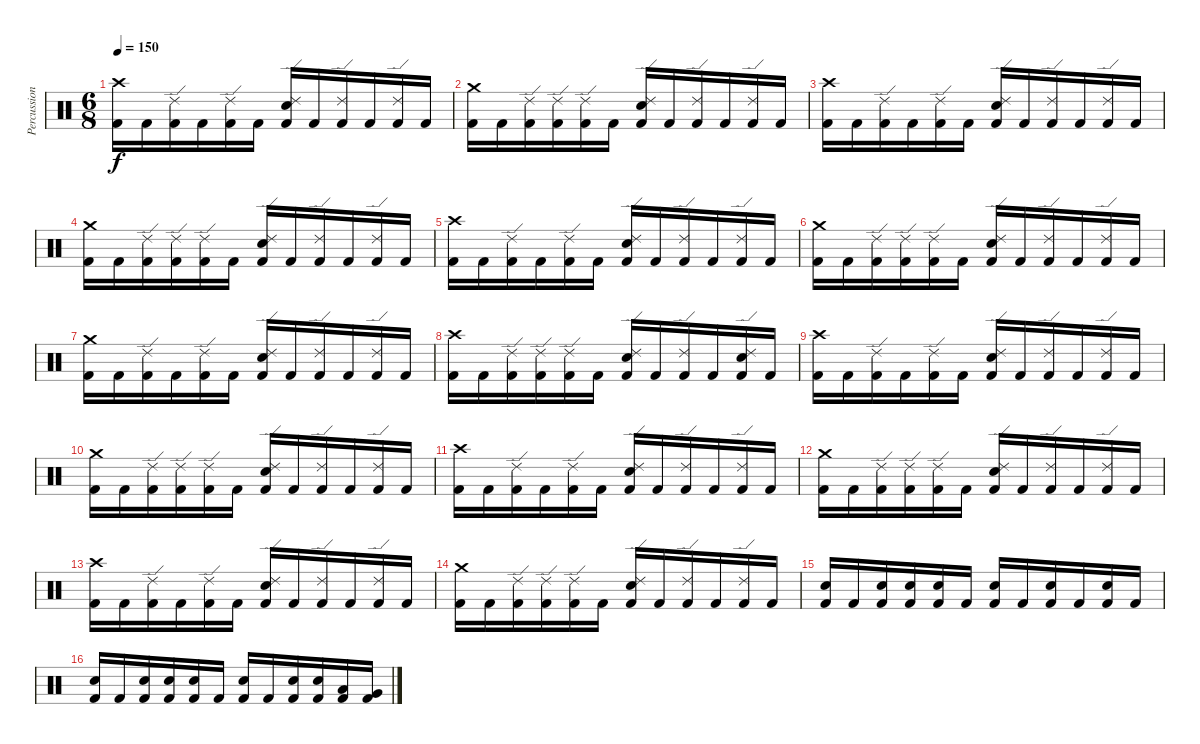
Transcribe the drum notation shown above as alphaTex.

\track ("Percussion" "Percussion") {instrument percussion}
\staff {score}
\articulation defaults
\ts (6 8)
\tempo 150
\clef neutral
\ks c
("Crash high (hit)" "Kick (hit) 2").16{dy f} "Kick (hit) 2".16 ("Ride (edge) 2" "Kick (hit) 2").16 "Kick (hit) 2".16 ("Ride (edge) 2" "Kick (hit) 2").16 "Kick (hit) 2".16 ("Ride (edge) 2" "Electric Snare (hit)" "Kick (hit) 2").16 "Kick (hit) 2".16 ("Ride (edge) 2" "Kick (hit) 2").16 "Kick (hit) 2".16 ("Ride (edge) 2" "Kick (hit) 2").16 "Kick (hit) 2".16 |
("Crash medium (hit)" "Kick (hit) 2").16 "Kick (hit) 2".16 ("Ride (edge) 2" "Kick (hit) 2").16 ("Ride (edge) 2" "Kick (hit) 2").16 ("Ride (edge) 2" "Kick (hit) 2").16 "Kick (hit) 2".16 ("Ride (edge) 2" "Electric Snare (hit)" "Kick (hit) 2").16 "Kick (hit) 2".16 ("Ride (edge) 2" "Kick (hit) 2").16 "Kick (hit) 2".16 ("Ride (edge) 2" "Kick (hit) 2").16 "Kick (hit) 2".16 |
("Crash high (hit)" "Kick (hit) 2").16 "Kick (hit) 2".16 ("Ride (edge) 2" "Kick (hit) 2").16 "Kick (hit) 2".16 ("Ride (edge) 2" "Kick (hit) 2").16 "Kick (hit) 2".16 ("Ride (edge) 2" "Electric Snare (hit)" "Kick (hit) 2").16 "Kick (hit) 2".16 ("Ride (edge) 2" "Kick (hit) 2").16 "Kick (hit) 2".16 ("Ride (edge) 2" "Kick (hit) 2").16 "Kick (hit) 2".16 |
("Crash medium (hit)" "Kick (hit) 2").16 "Kick (hit) 2".16 ("Ride (edge) 2" "Kick (hit) 2").16 ("Ride (edge) 2" "Kick (hit) 2").16 ("Ride (edge) 2" "Kick (hit) 2").16 "Kick (hit) 2".16 ("Ride (edge) 2" "Electric Snare (hit)" "Kick (hit) 2").16 "Kick (hit) 2".16 ("Ride (edge) 2" "Kick (hit) 2").16 "Kick (hit) 2".16 ("Ride (edge) 2" "Kick (hit) 2").16 "Kick (hit) 2".16 |
("Crash high (hit)" "Kick (hit) 2").16 "Kick (hit) 2".16 ("Ride (edge) 2" "Kick (hit) 2").16 "Kick (hit) 2".16 ("Ride (edge) 2" "Kick (hit) 2").16 "Kick (hit) 2".16 ("Ride (edge) 2" "Electric Snare (hit)" "Kick (hit) 2").16 "Kick (hit) 2".16 ("Ride (edge) 2" "Kick (hit) 2").16 "Kick (hit) 2".16 ("Ride (edge) 2" "Kick (hit) 2").16 "Kick (hit) 2".16 |
("Crash medium (hit)" "Kick (hit) 2").16 "Kick (hit) 2".16 ("Ride (edge) 2" "Kick (hit) 2").16 ("Ride (edge) 2" "Kick (hit) 2").16 ("Ride (edge) 2" "Kick (hit) 2").16 "Kick (hit) 2".16 ("Ride (edge) 2" "Electric Snare (hit)" "Kick (hit) 2").16 "Kick (hit) 2".16 ("Ride (edge) 2" "Kick (hit) 2").16 "Kick (hit) 2".16 ("Ride (edge) 2" "Kick (hit) 2").16 "Kick (hit) 2".16 |
("Crash medium (hit)" "Kick (hit) 2").16 "Kick (hit) 2".16 ("Ride (edge) 2" "Kick (hit) 2").16 "Kick (hit) 2".16 ("Ride (edge) 2" "Kick (hit) 2").16 "Kick (hit) 2".16 ("Ride (edge) 2" "Electric Snare (hit)" "Kick (hit) 2").16 "Kick (hit) 2".16 ("Ride (edge) 2" "Kick (hit) 2").16 "Kick (hit) 2".16 ("Ride (edge) 2" "Kick (hit) 2").16 "Kick (hit) 2".16 |
("Crash high (hit)" "Kick (hit) 2").16 "Kick (hit) 2".16 ("Ride (edge) 2" "Kick (hit) 2").16 ("Ride (edge) 2" "Kick (hit) 2").16 ("Ride (edge) 2" "Kick (hit) 2").16 "Kick (hit) 2".16 ("Ride (edge) 2" "Electric Snare (hit)" "Kick (hit) 2").16 "Kick (hit) 2".16 ("Ride (edge) 2" "Kick (hit) 2").16 "Kick (hit) 2".16 ("Ride (edge) 2" "Electric Snare (hit)" "Kick (hit) 2").16 "Kick (hit) 2".16 |
("Crash high (hit)" "Kick (hit) 2").16 "Kick (hit) 2".16 ("Ride (edge) 2" "Kick (hit) 2").16 "Kick (hit) 2".16 ("Ride (edge) 2" "Kick (hit) 2").16 "Kick (hit) 2".16 ("Ride (edge) 2" "Electric Snare (hit)" "Kick (hit) 2").16 "Kick (hit) 2".16 ("Ride (edge) 2" "Kick (hit) 2").16 "Kick (hit) 2".16 ("Ride (edge) 2" "Kick (hit) 2").16 "Kick (hit) 2".16 |
("Crash medium (hit)" "Kick (hit) 2").16 "Kick (hit) 2".16 ("Ride (edge) 2" "Kick (hit) 2").16 ("Ride (edge) 2" "Kick (hit) 2").16 ("Ride (edge) 2" "Kick (hit) 2").16 "Kick (hit) 2".16 ("Ride (edge) 2" "Electric Snare (hit)" "Kick (hit) 2").16 "Kick (hit) 2".16 ("Ride (edge) 2" "Kick (hit) 2").16 "Kick (hit) 2".16 ("Ride (edge) 2" "Kick (hit) 2").16 "Kick (hit) 2".16 |
("Crash high (hit)" "Kick (hit) 2").16 "Kick (hit) 2".16 ("Ride (edge) 2" "Kick (hit) 2").16 "Kick (hit) 2".16 ("Ride (edge) 2" "Kick (hit) 2").16 "Kick (hit) 2".16 ("Ride (edge) 2" "Electric Snare (hit)" "Kick (hit) 2").16 "Kick (hit) 2".16 ("Ride (edge) 2" "Kick (hit) 2").16 "Kick (hit) 2".16 ("Ride (edge) 2" "Kick (hit) 2").16 "Kick (hit) 2".16 |
("Crash medium (hit)" "Kick (hit) 2").16 "Kick (hit) 2".16 ("Ride (edge) 2" "Kick (hit) 2").16 ("Ride (edge) 2" "Kick (hit) 2").16 ("Ride (edge) 2" "Kick (hit) 2").16 "Kick (hit) 2".16 ("Ride (edge) 2" "Electric Snare (hit)" "Kick (hit) 2").16 "Kick (hit) 2".16 ("Ride (edge) 2" "Kick (hit) 2").16 "Kick (hit) 2".16 ("Ride (edge) 2" "Kick (hit) 2").16 "Kick (hit) 2".16 |
("Crash high (hit)" "Kick (hit) 2").16 "Kick (hit) 2".16 ("Ride (edge) 2" "Kick (hit) 2").16 "Kick (hit) 2".16 ("Ride (edge) 2" "Kick (hit) 2").16 "Kick (hit) 2".16 ("Ride (edge) 2" "Electric Snare (hit)" "Kick (hit) 2").16 "Kick (hit) 2".16 ("Ride (edge) 2" "Kick (hit) 2").16 "Kick (hit) 2".16 ("Ride (edge) 2" "Kick (hit) 2").16 "Kick (hit) 2".16 |
("Crash medium (hit)" "Kick (hit) 2").16 "Kick (hit) 2".16 ("Ride (edge) 2" "Kick (hit) 2").16 ("Ride (edge) 2" "Kick (hit) 2").16 ("Ride (edge) 2" "Kick (hit) 2").16 "Kick (hit) 2".16 ("Ride (edge) 2" "Electric Snare (hit)" "Kick (hit) 2").16 "Kick (hit) 2".16 ("Ride (edge) 2" "Kick (hit) 2").16 "Kick (hit) 2".16 ("Ride (edge) 2" "Kick (hit) 2").16 "Kick (hit) 2".16 |
("Electric Snare (hit)" "Kick (hit) 2").16 "Kick (hit) 2".16 ("Electric Snare (hit)" "Kick (hit) 2").16 ("Electric Snare (hit)" "Kick (hit) 2").16 ("Electric Snare (hit)" "Kick (hit) 2").16 "Kick (hit) 2".16 ("Electric Snare (hit)" "Kick (hit) 2").16 "Kick (hit) 2".16 ("Electric Snare (hit)" "Kick (hit) 2").16 "Kick (hit) 2".16 ("Electric Snare (hit)" "Kick (hit) 2").16 "Kick (hit) 2".16 |
("Electric Snare (hit)" "Kick (hit) 2").16 "Kick (hit) 2".16 ("Electric Snare (hit)" "Kick (hit) 2").16 ("Electric Snare (hit)" "Kick (hit) 2").16 ("Electric Snare (hit)" "Kick (hit) 2").16 "Kick (hit) 2".16 ("Electric Snare (hit)" "Kick (hit) 2").16 "Kick (hit) 2".16 ("Electric Snare (hit)" "Kick (hit) 2").16 ("Electric Snare (hit)" "Kick (hit) 2").16 ("Low Tom (hit)" "Kick (hit) 2").16 ("Very Low Tom (hit)" "Kick (hit) 2").16
